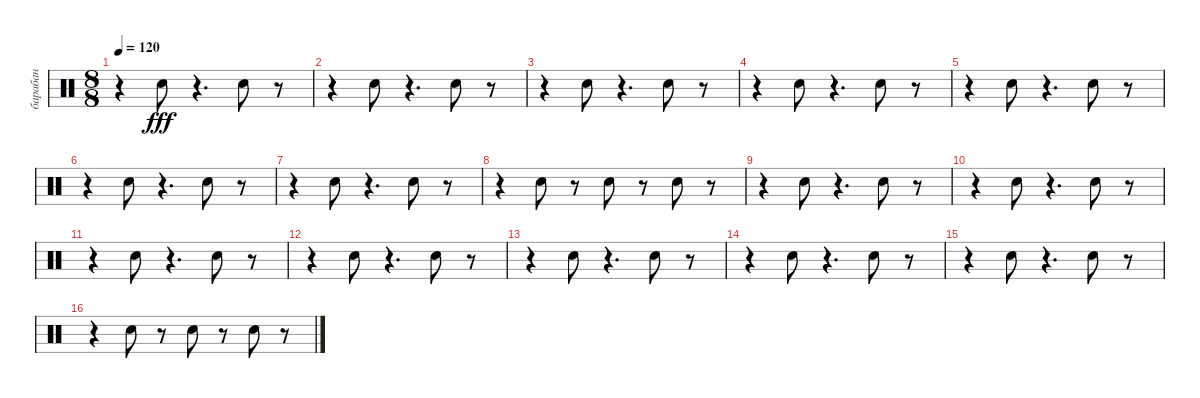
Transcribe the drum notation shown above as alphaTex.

\track ("барабан" "барабан") {instrument percussion}
\staff {score}
\articulation defaults
\ts (8 8)
\tempo 120
\clef neutral
\ks c
r.4{dy fff} "Snare (hit) 2".8 r.4{d} "Snare (hit) 2".8 r.8 |
r.4 "Snare (hit) 2".8 r.4{d} "Snare (hit) 2".8 r.8 |
r.4 "Snare (hit) 2".8 r.4{d} "Snare (hit) 2".8 r.8 |
r.4 "Snare (hit) 2".8 r.4{d} "Snare (hit) 2".8 r.8 |
r.4 "Snare (hit) 2".8 r.4{d} "Snare (hit) 2".8 r.8 |
r.4 "Snare (hit) 2".8 r.4{d} "Snare (hit) 2".8 r.8 |
r.4 "Snare (hit) 2".8 r.4{d} "Snare (hit) 2".8 r.8 |
r.4 "Snare (hit) 2".8 r.8 "Snare (hit) 2".8 r.8 "Snare (hit) 2".8 r.8 |
r.4 "Snare (hit) 2".8 r.4{d} "Snare (hit) 2".8 r.8 |
r.4 "Snare (hit) 2".8 r.4{d} "Snare (hit) 2".8 r.8 |
r.4 "Snare (hit) 2".8 r.4{d} "Snare (hit) 2".8 r.8 |
r.4 "Snare (hit) 2".8 r.4{d} "Snare (hit) 2".8 r.8 |
r.4 "Snare (hit) 2".8 r.4{d} "Snare (hit) 2".8 r.8 |
r.4 "Snare (hit) 2".8 r.4{d} "Snare (hit) 2".8 r.8 |
r.4 "Snare (hit) 2".8 r.4{d} "Snare (hit) 2".8 r.8 |
r.4 "Snare (hit) 2".8 r.8 "Snare (hit) 2".8 r.8 "Snare (hit) 2".8 r.8
